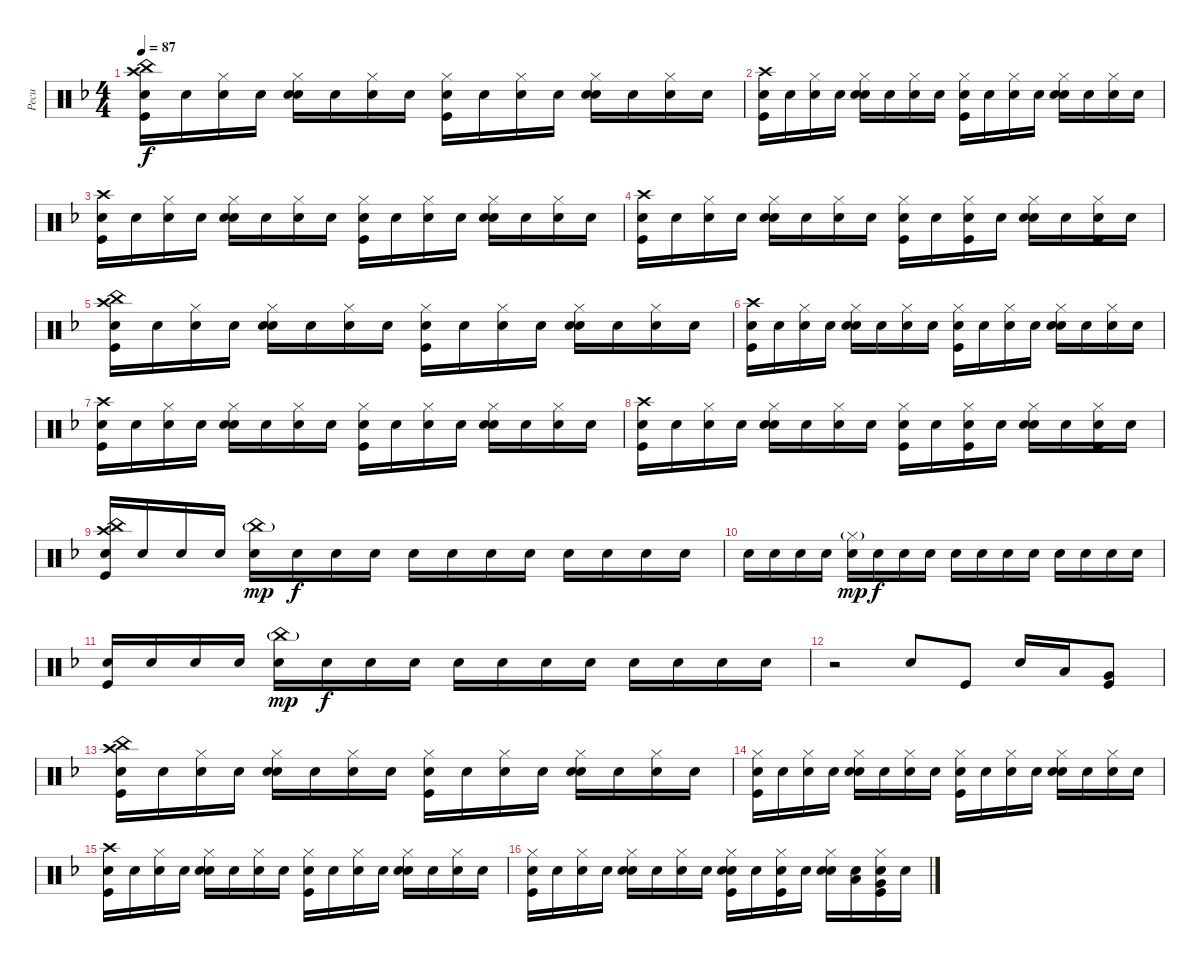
\track ("Pecu" "Pecu") {instrument percussion}
\staff {score}
\articulation defaults
\ts (4 4)
\tempo 87
\clef neutral
\ks dminor
("Snare (hit)" "Crash high (hit)" "China (hit)" "Kick (hit)").16{dy f} "Snare (hit)".16 ("Snare (hit)" "Hi-Hat (closed)").16 "Snare (hit)".16 ("Snare (hit)" "Hi-Hat (closed)" "Snare (hit) 2").16 "Snare (hit)".16 ("Snare (hit)" "Hi-Hat (closed)").16 "Snare (hit)".16 ("Snare (hit)" "Hi-Hat (closed)" "Kick (hit)").16 "Snare (hit)".16 ("Snare (hit)" "Hi-Hat (closed)").16 "Snare (hit)".16 ("Snare (hit)" "Hi-Hat (closed)" "Snare (hit) 2").16 "Snare (hit)".16 ("Snare (hit)" "Hi-Hat (closed)").16 "Snare (hit)".16 |
("Snare (hit)" "Crash high (hit)" "Kick (hit)").16 "Snare (hit)".16 ("Snare (hit)" "Hi-Hat (closed)").16 "Snare (hit)".16 ("Snare (hit)" "Hi-Hat (closed)" "Snare (hit) 2").16 "Snare (hit)".16 ("Snare (hit)" "Hi-Hat (closed)").16 "Snare (hit)".16 ("Snare (hit)" "Hi-Hat (closed)" "Kick (hit)").16 "Snare (hit)".16 ("Snare (hit)" "Hi-Hat (closed)").16 "Snare (hit)".16 ("Snare (hit)" "Hi-Hat (closed)" "Snare (hit) 2").16 "Snare (hit)".16 ("Snare (hit)" "Hi-Hat (closed)").16 "Snare (hit)".16 |
("Snare (hit)" "Crash high (hit)" "Kick (hit)").16 "Snare (hit)".16 ("Snare (hit)" "Hi-Hat (closed)").16 "Snare (hit)".16 ("Snare (hit)" "Hi-Hat (closed)" "Snare (hit) 2").16 "Snare (hit)".16 ("Snare (hit)" "Hi-Hat (closed)").16 "Snare (hit)".16 ("Snare (hit)" "Hi-Hat (closed)" "Kick (hit)").16 "Snare (hit)".16 ("Snare (hit)" "Hi-Hat (closed)").16 "Snare (hit)".16 ("Snare (hit)" "Hi-Hat (closed)" "Snare (hit) 2").16 "Snare (hit)".16 ("Snare (hit)" "Hi-Hat (closed)").16 "Snare (hit)".16 |
("Snare (hit)" "Crash high (hit)" "Kick (hit)").16 "Snare (hit)".16 ("Snare (hit)" "Hi-Hat (closed)").16 "Snare (hit)".16 ("Snare (hit)" "Hi-Hat (closed)" "Snare (hit) 2").16 "Snare (hit)".16 ("Snare (hit)" "Hi-Hat (closed)").16 "Snare (hit)".16 ("Snare (hit)" "Hi-Hat (closed)" "Kick (hit)").16 "Snare (hit)".16 ("Snare (hit)" "Hi-Hat (closed)" "Kick (hit)").16 "Snare (hit)".16 ("Snare (hit)" "Hi-Hat (closed)" "Snare (hit) 2").16 "Snare (hit)".16 ("Snare (hit)" "Hi-Hat (closed)" "Kick (hit)").16 "Snare (hit)".16 |
("Snare (hit)" "Crash high (hit)" "China (hit)" "Kick (hit)").16 "Snare (hit)".16 ("Snare (hit)" "Hi-Hat (closed)").16 "Snare (hit)".16 ("Snare (hit)" "Hi-Hat (closed)" "Snare (hit) 2").16 "Snare (hit)".16 ("Snare (hit)" "Hi-Hat (closed)").16 "Snare (hit)".16 ("Snare (hit)" "Hi-Hat (closed)" "Kick (hit)").16 "Snare (hit)".16 ("Snare (hit)" "Hi-Hat (closed)").16 "Snare (hit)".16 ("Snare (hit)" "Hi-Hat (closed)" "Snare (hit) 2").16 "Snare (hit)".16 ("Snare (hit)" "Hi-Hat (closed)").16 "Snare (hit)".16 |
("Snare (hit)" "Crash high (hit)" "Kick (hit)").16 "Snare (hit)".16 ("Snare (hit)" "Hi-Hat (closed)").16 "Snare (hit)".16 ("Snare (hit)" "Hi-Hat (closed)" "Snare (hit) 2").16 "Snare (hit)".16 ("Snare (hit)" "Hi-Hat (closed)").16 "Snare (hit)".16 ("Snare (hit)" "Hi-Hat (closed)" "Kick (hit)").16 "Snare (hit)".16 ("Snare (hit)" "Hi-Hat (closed)").16 "Snare (hit)".16 ("Snare (hit)" "Hi-Hat (closed)" "Snare (hit) 2").16 "Snare (hit)".16 ("Snare (hit)" "Hi-Hat (closed)").16 "Snare (hit)".16 |
("Snare (hit)" "Crash high (hit)" "Kick (hit)").16 "Snare (hit)".16 ("Snare (hit)" "Hi-Hat (closed)").16 "Snare (hit)".16 ("Snare (hit)" "Hi-Hat (closed)" "Snare (hit) 2").16 "Snare (hit)".16 ("Snare (hit)" "Hi-Hat (closed)").16 "Snare (hit)".16 ("Snare (hit)" "Hi-Hat (closed)" "Kick (hit)").16 "Snare (hit)".16 ("Snare (hit)" "Hi-Hat (closed)").16 "Snare (hit)".16 ("Snare (hit)" "Hi-Hat (closed)" "Snare (hit) 2").16 "Snare (hit)".16 ("Snare (hit)" "Hi-Hat (closed)").16 "Snare (hit)".16 |
("Snare (hit)" "Crash high (hit)" "Kick (hit)").16 "Snare (hit)".16 ("Snare (hit)" "Hi-Hat (closed)").16 "Snare (hit)".16 ("Snare (hit)" "Hi-Hat (closed)" "Snare (hit) 2").16 "Snare (hit)".16 ("Snare (hit)" "Hi-Hat (closed)").16 "Snare (hit)".16 ("Snare (hit)" "Hi-Hat (closed)" "Kick (hit)").16 "Snare (hit)".16 ("Snare (hit)" "Hi-Hat (closed)" "Kick (hit)").16 "Snare (hit)".16 ("Snare (hit)" "Hi-Hat (closed)" "Snare (hit) 2").16 "Snare (hit)".16 ("Snare (hit)" "Hi-Hat (closed)" "Kick (hit)").16 "Snare (hit)".16 |
("Snare (hit)" "Crash high (hit)" "China (hit)" "Kick (hit)").16 "Snare (hit)".16 "Snare (hit)".16 "Snare (hit)".16 ("Snare (hit)" "China (hit)"{g}).16{dy mp} "Snare (hit)".16{dy f} "Snare (hit)".16 "Snare (hit)".16 "Snare (hit)".16 "Snare (hit)".16 "Snare (hit)".16 "Snare (hit)".16 "Snare (hit)".16 "Snare (hit)".16 "Snare (hit)".16 "Snare (hit)".16 |
"Snare (hit)".16 "Snare (hit)".16 "Snare (hit)".16 "Snare (hit)".16 ("Snare (hit)" "Hi-Hat (closed)"{g}).16{dy mp} "Snare (hit)".16{dy f} "Snare (hit)".16 "Snare (hit)".16 "Snare (hit)".16 "Snare (hit)".16 "Snare (hit)".16 "Snare (hit)".16 "Snare (hit)".16 "Snare (hit)".16 "Snare (hit)".16 "Snare (hit)".16 |
("Snare (hit)" "Kick (hit)").16 "Snare (hit)".16 "Snare (hit)".16 "Snare (hit)".16 ("Snare (hit)" "China (hit)"{g}).16{dy mp} "Snare (hit)".16{dy f} "Snare (hit)".16 "Snare (hit)".16 "Snare (hit)".16 "Snare (hit)".16 "Snare (hit)".16 "Snare (hit)".16 "Snare (hit)".16 "Snare (hit)".16 "Snare (hit)".16 "Snare (hit)".16 |
r.2 "Snare (hit) 2".8 "Kick (hit)".8 "Snare (hit) 2".16 "Low Tom (hit)".16 ("Very Low Tom (hit)" "Kick (hit)").8 |
("Snare (hit)" "Crash high (hit)" "China (hit)" "Kick (hit)").16 "Snare (hit)".16 ("Snare (hit)" "Hi-Hat (closed)").16 "Snare (hit)".16 ("Snare (hit)" "Hi-Hat (closed)" "Snare (hit) 2").16 "Snare (hit)".16 ("Snare (hit)" "Hi-Hat (closed)").16 "Snare (hit)".16 ("Snare (hit)" "Hi-Hat (closed)" "Kick (hit)").16 "Snare (hit)".16 ("Snare (hit)" "Hi-Hat (closed)").16 "Snare (hit)".16 ("Snare (hit)" "Hi-Hat (closed)" "Snare (hit) 2").16 "Snare (hit)".16 ("Snare (hit)" "Hi-Hat (closed)").16 "Snare (hit)".16 |
("Snare (hit)" "Hi-Hat (closed)" "Kick (hit)").16 "Snare (hit)".16 ("Snare (hit)" "Hi-Hat (closed)").16 "Snare (hit)".16 ("Snare (hit)" "Hi-Hat (closed)" "Snare (hit) 2").16 "Snare (hit)".16 ("Snare (hit)" "Hi-Hat (closed)").16 "Snare (hit)".16 ("Snare (hit)" "Hi-Hat (closed)" "Kick (hit)").16 "Snare (hit)".16 ("Snare (hit)" "Hi-Hat (closed)").16 "Snare (hit)".16 ("Snare (hit)" "Hi-Hat (closed)" "Snare (hit) 2").16 "Snare (hit)".16 ("Snare (hit)" "Hi-Hat (closed)").16 "Snare (hit)".16 |
("Snare (hit)" "Crash high (hit)" "Kick (hit)").16 "Snare (hit)".16 ("Snare (hit)" "Hi-Hat (closed)").16 "Snare (hit)".16 ("Snare (hit)" "Hi-Hat (closed)" "Snare (hit) 2").16 "Snare (hit)".16 ("Snare (hit)" "Hi-Hat (closed)").16 "Snare (hit)".16 ("Snare (hit)" "Hi-Hat (closed)" "Kick (hit)").16 "Snare (hit)".16 ("Snare (hit)" "Hi-Hat (closed)").16 "Snare (hit)".16 ("Snare (hit)" "Hi-Hat (closed)" "Snare (hit) 2").16 "Snare (hit)".16 ("Snare (hit)" "Hi-Hat (closed)").16 "Snare (hit)".16 |
("Snare (hit)" "Hi-Hat (closed)" "Kick (hit)").16 "Snare (hit)".16 ("Snare (hit)" "Hi-Hat (closed)").16 "Snare (hit)".16 ("Snare (hit)" "Hi-Hat (closed)" "Snare (hit) 2").16 "Snare (hit)".16 ("Snare (hit)" "Hi-Hat (closed)").16 "Snare (hit)".16 ("Snare (hit)" "Hi-Hat (closed)" "Snare (hit) 2" "Kick (hit)").16 "Snare (hit)".16 ("Snare (hit)" "Hi-Hat (closed)" "Kick (hit)").16 "Snare (hit)".16 ("Snare (hit)" "Hi-Hat (closed)" "Snare (hit) 2").16 ("Snare (hit)" "Low Tom (hit)").16 ("Snare (hit)" "Hi-Hat (closed)" "Very Low Tom (hit)" "Kick (hit)").16 "Snare (hit)".16
